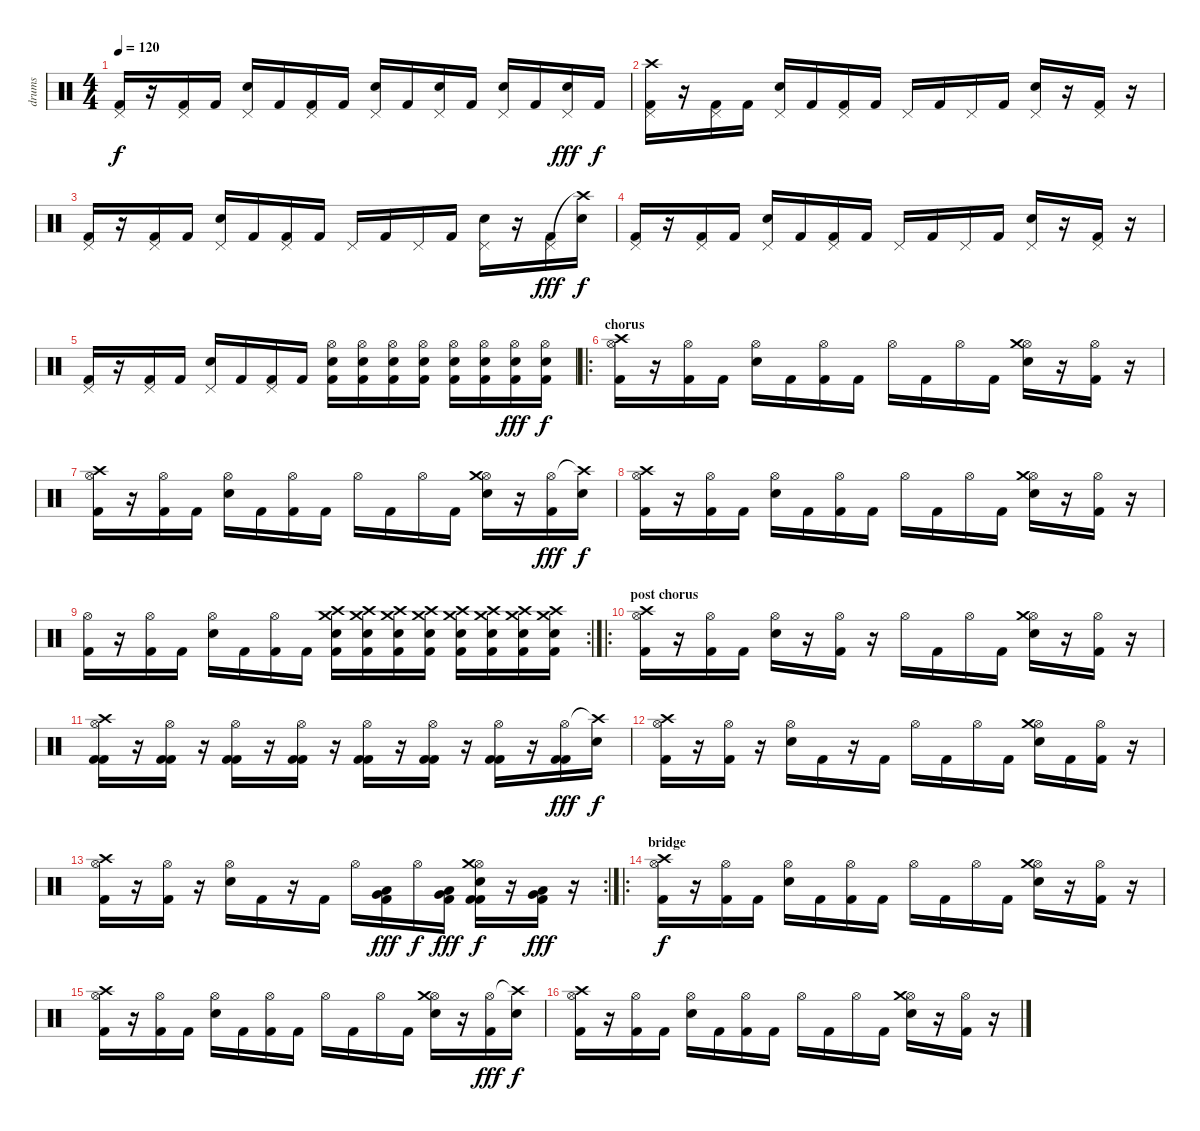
\track ("drums" "drums") {instrument percussion}
\staff {score}
\articulation defaults
\ts (4 4)
\tempo 120
\clef neutral
\ks c
("Pedal Hi-Hat (hit)" "Kick (hit) 2").16{dy f} r.16 ("Pedal Hi-Hat (hit)" "Kick (hit) 2").16 "Kick (hit) 2".16 ("Pedal Hi-Hat (hit)" "Electric Snare (hit)").16 "Kick (hit) 2".16 ("Pedal Hi-Hat (hit)" "Kick (hit) 2").16 "Kick (hit) 2".16 ("Pedal Hi-Hat (hit)" "Electric Snare (hit)").16 "Kick (hit) 2".16 ("Pedal Hi-Hat (hit)" "Electric Snare (hit)").16 "Kick (hit) 2".16 ("Pedal Hi-Hat (hit)" "Electric Snare (hit)").16 "Kick (hit) 2".16 ("Pedal Hi-Hat (hit)" "Electric Snare (hit)").16{dy fff} "Kick (hit) 2".16{dy f} |
("Pedal Hi-Hat (hit)" "Crash high (hit)" "Kick (hit) 2").16 r.16 ("Pedal Hi-Hat (hit)" "Kick (hit) 2").16 "Kick (hit) 2".16 ("Pedal Hi-Hat (hit)" "Electric Snare (hit)").16 "Kick (hit) 2".16 ("Pedal Hi-Hat (hit)" "Kick (hit) 2").16 "Kick (hit) 2".16 "Pedal Hi-Hat (hit)".16 "Kick (hit) 2".16 "Pedal Hi-Hat (hit)".16 "Kick (hit) 2".16 ("Pedal Hi-Hat (hit)" "Electric Snare (hit)").16 r.16 ("Pedal Hi-Hat (hit)" "Kick (hit) 2").16 r.16 |
("Pedal Hi-Hat (hit)" "Kick (hit) 2").16 r.16 ("Pedal Hi-Hat (hit)" "Kick (hit) 2").16 "Kick (hit) 2".16 ("Pedal Hi-Hat (hit)" "Electric Snare (hit)").16 "Kick (hit) 2".16 ("Pedal Hi-Hat (hit)" "Kick (hit) 2").16 "Kick (hit) 2".16 "Pedal Hi-Hat (hit)".16 "Kick (hit) 2".16 "Pedal Hi-Hat (hit)".16 "Kick (hit) 2".16 ("Pedal Hi-Hat (hit)" "Electric Snare (hit)").16 r.16 ("Pedal Hi-Hat (hit)" "Kick (hit) 2").16{dy fff} ("Crash high (hit)"{t} "Electric Snare (hit)").16{dy f} |
("Pedal Hi-Hat (hit)" "Kick (hit) 2").16 r.16 ("Pedal Hi-Hat (hit)" "Kick (hit) 2").16 "Kick (hit) 2".16 ("Pedal Hi-Hat (hit)" "Electric Snare (hit)").16 "Kick (hit) 2".16 ("Pedal Hi-Hat (hit)" "Kick (hit) 2").16 "Kick (hit) 2".16 "Pedal Hi-Hat (hit)".16 "Kick (hit) 2".16 "Pedal Hi-Hat (hit)".16 "Kick (hit) 2".16 ("Pedal Hi-Hat (hit)" "Electric Snare (hit)").16 r.16 ("Pedal Hi-Hat (hit)" "Kick (hit) 2").16 r.16 |
("Pedal Hi-Hat (hit)" "Kick (hit) 2").16 r.16 ("Pedal Hi-Hat (hit)" "Kick (hit) 2").16 "Kick (hit) 2".16 ("Pedal Hi-Hat (hit)" "Electric Snare (hit)").16 "Kick (hit) 2".16 ("Pedal Hi-Hat (hit)" "Kick (hit) 2").16 "Kick (hit) 2".16 ("Hi-Hat (open)" "Kick (hit) 2" "Electric Snare (hit)").16 ("Hi-Hat (open)" "Kick (hit) 2" "Electric Snare (hit)").16 ("Hi-Hat (open)" "Kick (hit) 2" "Electric Snare (hit)").16 ("Hi-Hat (open)" "Kick (hit) 2" "Electric Snare (hit)").16 ("Hi-Hat (open)" "Kick (hit) 2" "Electric Snare (hit)").16 ("Hi-Hat (open)" "Kick (hit) 2" "Electric Snare (hit)").16 ("Hi-Hat (open)" "Kick (hit) 2" "Electric Snare (hit)").16{dy fff} ("Hi-Hat (open)" "Kick (hit) 2" "Electric Snare (hit)").16{dy f} |
\ro
\section ("" "chorus")
("Hi-Hat (open)" "Crash high (hit)" "Kick (hit) 2").16 r.16 ("Hi-Hat (open)" "Kick (hit) 2").16 "Kick (hit) 2".16 ("Hi-Hat (open)" "Electric Snare (hit)").16 "Kick (hit) 2".16 ("Hi-Hat (open)" "Kick (hit) 2").16 "Kick (hit) 2".16 "Hi-Hat (open)".16 "Kick (hit) 2".16 "Hi-Hat (open)".16 "Kick (hit) 2".16 ("Hi-Hat (open)" "Crash medium (hit)" "Electric Snare (hit)").16 r.16 ("Hi-Hat (open)" "Kick (hit) 2").16 r.16 |
("Hi-Hat (open)" "Crash high (hit)" "Kick (hit) 2").16 r.16 ("Hi-Hat (open)" "Kick (hit) 2").16 "Kick (hit) 2".16 ("Hi-Hat (open)" "Electric Snare (hit)").16 "Kick (hit) 2".16 ("Hi-Hat (open)" "Kick (hit) 2").16 "Kick (hit) 2".16 "Hi-Hat (open)".16 "Kick (hit) 2".16 "Hi-Hat (open)".16 "Kick (hit) 2".16 ("Hi-Hat (open)" "Crash medium (hit)" "Electric Snare (hit)").16 r.16 ("Hi-Hat (open)" "Kick (hit) 2").16{dy fff} ("Crash high (hit)"{t} "Electric Snare (hit)").16{dy f} |
("Hi-Hat (open)" "Crash high (hit)" "Kick (hit) 2").16 r.16 ("Hi-Hat (open)" "Kick (hit) 2").16 "Kick (hit) 2".16 ("Hi-Hat (open)" "Electric Snare (hit)").16 "Kick (hit) 2".16 ("Hi-Hat (open)" "Kick (hit) 2").16 "Kick (hit) 2".16 "Hi-Hat (open)".16 "Kick (hit) 2".16 "Hi-Hat (open)".16 "Kick (hit) 2".16 ("Hi-Hat (open)" "Crash medium (hit)" "Electric Snare (hit)").16 r.16 ("Hi-Hat (open)" "Kick (hit) 2").16 r.16 |
\rc 2
("Hi-Hat (open)" "Kick (hit) 2").16 r.16 ("Hi-Hat (open)" "Kick (hit) 2").16 "Kick (hit) 2".16 ("Hi-Hat (open)" "Electric Snare (hit)").16 "Kick (hit) 2".16 ("Hi-Hat (open)" "Kick (hit) 2").16 "Kick (hit) 2".16 ("Crash high (hit)" "Crash medium (hit)" "Electric Snare (hit)" "Kick (hit) 2").16 ("Crash high (hit)" "Crash medium (hit)" "Electric Snare (hit)" "Kick (hit) 2").16 ("Crash high (hit)" "Crash medium (hit)" "Electric Snare (hit)" "Kick (hit) 2").16 ("Crash high (hit)" "Crash medium (hit)" "Electric Snare (hit)" "Kick (hit) 2").16 ("Crash high (hit)" "Crash medium (hit)" "Electric Snare (hit)" "Kick (hit) 2").16 ("Crash high (hit)" "Crash medium (hit)" "Electric Snare (hit)" "Kick (hit) 2").16 ("Crash high (hit)" "Crash medium (hit)" "Electric Snare (hit)" "Kick (hit) 2").16 ("Crash high (hit)" "Crash medium (hit)" "Electric Snare (hit)" "Kick (hit) 2").16 |
\ro
\section ("" "post chorus")
("Hi-Hat (open)" "Crash high (hit)" "Kick (hit) 2").16 r.16 ("Hi-Hat (open)" "Kick (hit) 2").16 "Kick (hit) 2".16 ("Hi-Hat (open)" "Electric Snare (hit)").16 r.16 ("Hi-Hat (open)" "Kick (hit) 2").16 r.16 "Hi-Hat (open)".16 "Kick (hit) 2".16 "Hi-Hat (open)".16 "Kick (hit) 2".16 ("Hi-Hat (open)" "Crash medium (hit)" "Electric Snare (hit)").16 r.16 ("Hi-Hat (open)" "Kick (hit) 2").16 r.16 |
("Hi-Hat (open)" "Crash high (hit)" "Kick (hit) 2" "Kick (hit) 2").16 r.16 ("Hi-Hat (open)" "Kick (hit) 2" "Kick (hit) 2").16 r.16 ("Hi-Hat (open)" "Kick (hit) 2" "Kick (hit) 2").16 r.16 ("Hi-Hat (open)" "Kick (hit) 2" "Kick (hit) 2").16 r.16 ("Hi-Hat (open)" "Kick (hit) 2" "Kick (hit) 2").16 r.16 ("Hi-Hat (open)" "Kick (hit) 2" "Kick (hit) 2").16 r.16 ("Hi-Hat (open)" "Kick (hit) 2" "Kick (hit) 2").16 r.16 ("Hi-Hat (open)" "Kick (hit) 2" "Kick (hit) 2").16{dy fff} ("Crash high (hit)"{t} "Electric Snare (hit)").16{dy f} |
("Hi-Hat (open)" "Crash high (hit)" "Kick (hit) 2").16 r.16 ("Hi-Hat (open)" "Kick (hit) 2").16 r.16 ("Hi-Hat (open)" "Electric Snare (hit)").16 "Kick (hit) 2".16 r.16 "Kick (hit) 2".16 "Hi-Hat (open)".16 "Kick (hit) 2".16 "Hi-Hat (open)".16 "Kick (hit) 2".16 ("Hi-Hat (open)" "Crash medium (hit)" "Electric Snare (hit)").16 "Kick (hit) 2".16 ("Hi-Hat (open)" "Kick (hit) 2").16 r.16 |
\rc 2
("Hi-Hat (open)" "Crash high (hit)" "Kick (hit) 2").16 r.16 ("Hi-Hat (open)" "Kick (hit) 2").16 r.16 ("Hi-Hat (open)" "Electric Snare (hit)").16 "Kick (hit) 2".16 r.16 "Kick (hit) 2".16 "Hi-Hat (open)".16 ("Low Floor Tom (hit)" "Very Low Tom (hit)" "Kick (hit) 2").16{dy fff} "Hi-Hat (open)".16{dy f} ("Low Floor Tom (hit)" "Very Low Tom (hit)" "Kick (hit) 2").16{dy fff} ("Hi-Hat (open)" "Crash medium (hit)" "Kick (hit) 2" "Kick (hit) 2" "Electric Snare (hit)").16{dy f} r.16 ("Low Floor Tom (hit)" "Very Low Tom (hit)" "Kick (hit) 2").16{dy fff} r.16 |
\ro
\section ("" "bridge")
("Hi-Hat (open)" "Crash high (hit)" "Kick (hit) 2").16{dy f} r.16 ("Hi-Hat (open)" "Kick (hit) 2").16 "Kick (hit) 2".16 ("Hi-Hat (open)" "Electric Snare (hit)").16 "Kick (hit) 2".16 ("Hi-Hat (open)" "Kick (hit) 2").16 "Kick (hit) 2".16 "Hi-Hat (open)".16 "Kick (hit) 2".16 "Hi-Hat (open)".16 "Kick (hit) 2".16 ("Hi-Hat (open)" "Crash medium (hit)" "Electric Snare (hit)").16 r.16 ("Hi-Hat (open)" "Kick (hit) 2").16 r.16 |
("Hi-Hat (open)" "Crash high (hit)" "Kick (hit) 2").16 r.16 ("Hi-Hat (open)" "Kick (hit) 2").16 "Kick (hit) 2".16 ("Hi-Hat (open)" "Electric Snare (hit)").16 "Kick (hit) 2".16 ("Hi-Hat (open)" "Kick (hit) 2").16 "Kick (hit) 2".16 "Hi-Hat (open)".16 "Kick (hit) 2".16 "Hi-Hat (open)".16 "Kick (hit) 2".16 ("Hi-Hat (open)" "Crash medium (hit)" "Electric Snare (hit)").16 r.16 ("Hi-Hat (open)" "Kick (hit) 2").16{dy fff} ("Crash high (hit)"{t} "Electric Snare (hit)").16{dy f} |
("Hi-Hat (open)" "Crash high (hit)" "Kick (hit) 2").16 r.16 ("Hi-Hat (open)" "Kick (hit) 2").16 "Kick (hit) 2".16 ("Hi-Hat (open)" "Electric Snare (hit)").16 "Kick (hit) 2".16 ("Hi-Hat (open)" "Kick (hit) 2").16 "Kick (hit) 2".16 "Hi-Hat (open)".16 "Kick (hit) 2".16 "Hi-Hat (open)".16 "Kick (hit) 2".16 ("Hi-Hat (open)" "Crash medium (hit)" "Electric Snare (hit)").16 r.16 ("Hi-Hat (open)" "Kick (hit) 2").16 r.16
